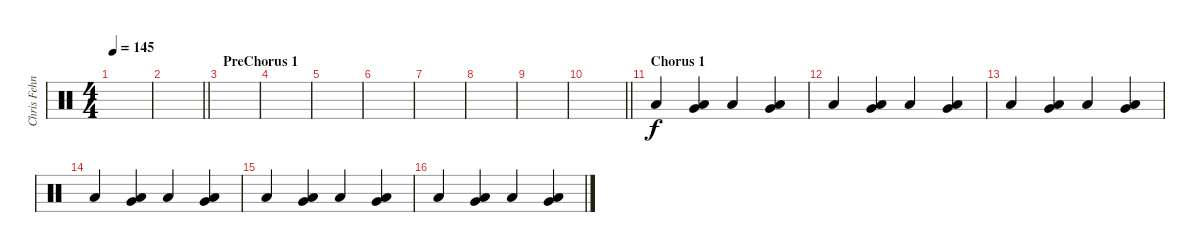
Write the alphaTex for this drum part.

\track ("Chris Fehn" "Chris Fehn") {instrument percussion}
\staff {score}
\articulation defaults
\ts (4 4)
\tempo 145
\clef neutral
\ks c
|
\barLineRight lightlight
|
\section ("" "PreChorus 1")
|
|
|
|
|
|
|
\barLineRight lightlight
|
\section ("" "Chorus 1")
"Low Floor Tom (hit)".4{dy f} ("Very Low Tom (hit)" "Low Floor Tom (hit)").4 "Low Floor Tom (hit)".4 ("Very Low Tom (hit)" "Low Floor Tom (hit)").4 |
"Low Floor Tom (hit)".4 ("Very Low Tom (hit)" "Low Floor Tom (hit)").4 "Low Floor Tom (hit)".4 ("Very Low Tom (hit)" "Low Floor Tom (hit)").4 |
"Low Floor Tom (hit)".4 ("Very Low Tom (hit)" "Low Floor Tom (hit)").4 "Low Floor Tom (hit)".4 ("Very Low Tom (hit)" "Low Floor Tom (hit)").4 |
"Low Floor Tom (hit)".4 ("Very Low Tom (hit)" "Low Floor Tom (hit)").4 "Low Floor Tom (hit)".4 ("Very Low Tom (hit)" "Low Floor Tom (hit)").4 |
"Low Floor Tom (hit)".4 ("Very Low Tom (hit)" "Low Floor Tom (hit)").4 "Low Floor Tom (hit)".4 ("Very Low Tom (hit)" "Low Floor Tom (hit)").4 |
"Low Floor Tom (hit)".4 ("Very Low Tom (hit)" "Low Floor Tom (hit)").4 "Low Floor Tom (hit)".4 ("Very Low Tom (hit)" "Low Floor Tom (hit)").4
